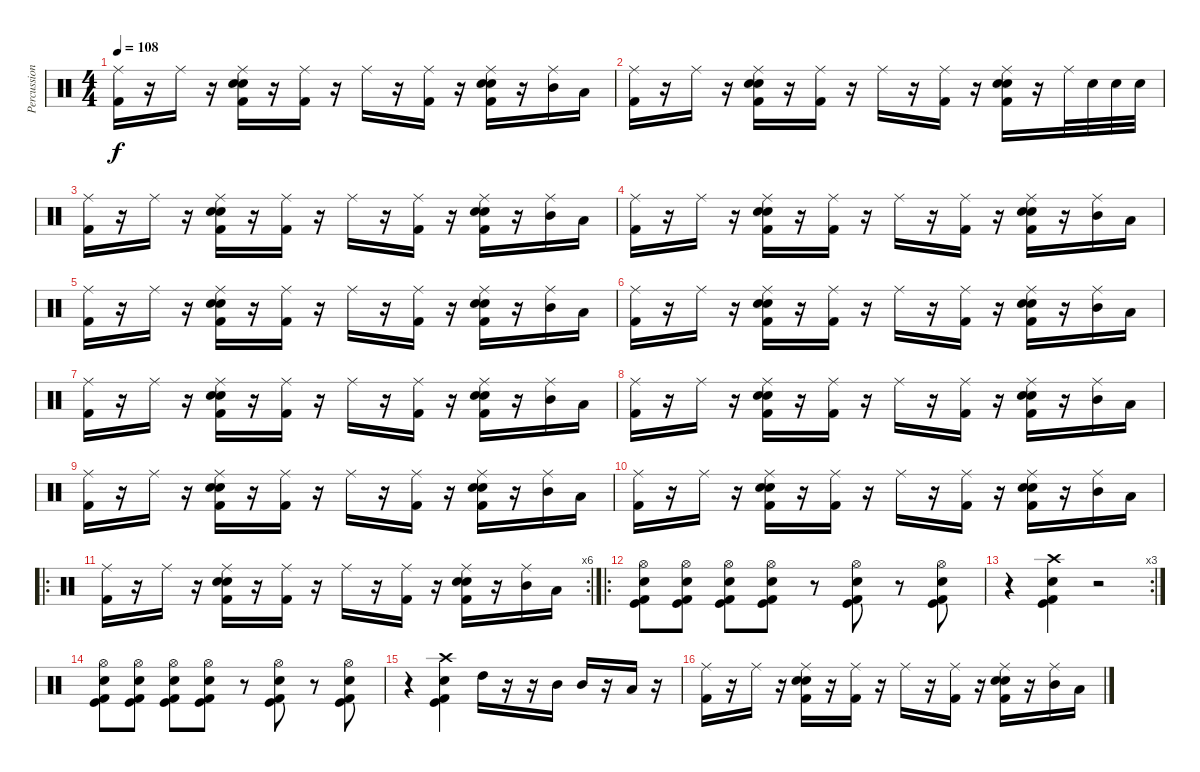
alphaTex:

\track ("Percussions" "Percussion") {instrument percussion}
\staff {score}
\articulation defaults
\ts (4 4)
\tempo 108
\clef neutral
\ks c
("Ride (middle)" "Kick (hit) 2").16{dy f} r.16 "Ride (middle)".16 r.16 ("Ride (middle)" "Kick (hit) 2" "Snare (hit) 2" "Electric Snare (hit)").16 r.16 ("Ride (middle)" "Kick (hit) 2").16 r.16 "Ride (middle)".16 r.16 ("Ride (middle)" "Kick (hit) 2").16 r.16 ("Ride (middle)" "Kick (hit) 2" "Snare (hit) 2" "Electric Snare (hit)").16 r.16 ("Ride (middle)" "Mid Tom (hit)").16 "Low Tom (hit)".16 |
("Ride (middle)" "Kick (hit) 2").16 r.16 "Ride (middle)".16 r.16 ("Ride (middle)" "Kick (hit) 2" "Snare (hit) 2" "Electric Snare (hit)").16 r.16 ("Ride (middle)" "Kick (hit) 2").16 r.16 "Ride (middle)".16 r.16 ("Ride (middle)" "Kick (hit) 2").16 r.16 ("Ride (middle)" "Kick (hit) 2" "Snare (hit) 2" "Electric Snare (hit)").16 r.16 "Ride (middle)".32 "Snare (hit) 2".32 "Snare (hit) 2".32 "Snare (hit) 2".32 |
("Ride (middle)" "Kick (hit) 2").16 r.16 "Ride (middle)".16 r.16 ("Ride (middle)" "Kick (hit) 2" "Snare (hit) 2" "Electric Snare (hit)").16 r.16 ("Ride (middle)" "Kick (hit) 2").16 r.16 "Ride (middle)".16 r.16 ("Ride (middle)" "Kick (hit) 2").16 r.16 ("Ride (middle)" "Kick (hit) 2" "Snare (hit) 2" "Electric Snare (hit)").16 r.16 ("Ride (middle)" "Mid Tom (hit)").16 "Low Tom (hit)".16 |
("Ride (middle)" "Kick (hit) 2").16 r.16 "Ride (middle)".16 r.16 ("Ride (middle)" "Kick (hit) 2" "Snare (hit) 2" "Electric Snare (hit)").16 r.16 ("Ride (middle)" "Kick (hit) 2").16 r.16 "Ride (middle)".16 r.16 ("Ride (middle)" "Kick (hit) 2").16 r.16 ("Ride (middle)" "Kick (hit) 2" "Snare (hit) 2" "Electric Snare (hit)").16 r.16 ("Ride (middle)" "Mid Tom (hit)").16 "Low Tom (hit)".16 |
("Ride (middle)" "Kick (hit) 2").16 r.16 "Ride (middle)".16 r.16 ("Ride (middle)" "Kick (hit) 2" "Snare (hit) 2" "Electric Snare (hit)").16 r.16 ("Ride (middle)" "Kick (hit) 2").16 r.16 "Ride (middle)".16 r.16 ("Ride (middle)" "Kick (hit) 2").16 r.16 ("Ride (middle)" "Kick (hit) 2" "Snare (hit) 2" "Electric Snare (hit)").16 r.16 ("Ride (middle)" "Mid Tom (hit)").16 "Low Tom (hit)".16 |
("Ride (middle)" "Kick (hit) 2").16 r.16 "Ride (middle)".16 r.16 ("Ride (middle)" "Kick (hit) 2" "Snare (hit) 2" "Electric Snare (hit)").16 r.16 ("Ride (middle)" "Kick (hit) 2").16 r.16 "Ride (middle)".16 r.16 ("Ride (middle)" "Kick (hit) 2").16 r.16 ("Ride (middle)" "Kick (hit) 2" "Snare (hit) 2" "Electric Snare (hit)").16 r.16 ("Ride (middle)" "Mid Tom (hit)").16 "Low Tom (hit)".16 |
("Ride (middle)" "Kick (hit) 2").16 r.16 "Ride (middle)".16 r.16 ("Ride (middle)" "Kick (hit) 2" "Snare (hit) 2" "Electric Snare (hit)").16 r.16 ("Ride (middle)" "Kick (hit) 2").16 r.16 "Ride (middle)".16 r.16 ("Ride (middle)" "Kick (hit) 2").16 r.16 ("Ride (middle)" "Kick (hit) 2" "Snare (hit) 2" "Electric Snare (hit)").16 r.16 ("Ride (middle)" "Mid Tom (hit)").16 "Low Tom (hit)".16 |
("Ride (middle)" "Kick (hit) 2").16 r.16 "Ride (middle)".16 r.16 ("Ride (middle)" "Kick (hit) 2" "Snare (hit) 2" "Electric Snare (hit)").16 r.16 ("Ride (middle)" "Kick (hit) 2").16 r.16 "Ride (middle)".16 r.16 ("Ride (middle)" "Kick (hit) 2").16 r.16 ("Ride (middle)" "Kick (hit) 2" "Snare (hit) 2" "Electric Snare (hit)").16 r.16 ("Ride (middle)" "Mid Tom (hit)").16 "Low Tom (hit)".16 |
("Ride (middle)" "Kick (hit) 2").16 r.16 "Ride (middle)".16 r.16 ("Ride (middle)" "Kick (hit) 2" "Snare (hit) 2" "Electric Snare (hit)").16 r.16 ("Ride (middle)" "Kick (hit) 2").16 r.16 "Ride (middle)".16 r.16 ("Ride (middle)" "Kick (hit) 2").16 r.16 ("Ride (middle)" "Kick (hit) 2" "Snare (hit) 2" "Electric Snare (hit)").16 r.16 ("Ride (middle)" "Mid Tom (hit)").16 "Low Tom (hit)".16 |
("Ride (middle)" "Kick (hit) 2").16 r.16 "Ride (middle)".16 r.16 ("Ride (middle)" "Kick (hit) 2" "Snare (hit) 2" "Electric Snare (hit)").16 r.16 ("Ride (middle)" "Kick (hit) 2").16 r.16 "Ride (middle)".16 r.16 ("Ride (middle)" "Kick (hit) 2").16 r.16 ("Ride (middle)" "Kick (hit) 2" "Snare (hit) 2" "Electric Snare (hit)").16 r.16 ("Ride (middle)" "Mid Tom (hit)").16 "Low Tom (hit)".16 |
\ro
\rc 6
("Ride (middle)" "Kick (hit) 2").16 r.16 "Ride (middle)".16 r.16 ("Ride (middle)" "Kick (hit) 2" "Snare (hit) 2" "Electric Snare (hit)").16 r.16 ("Ride (middle)" "Kick (hit) 2").16 r.16 "Ride (middle)".16 r.16 ("Ride (middle)" "Kick (hit) 2").16 r.16 ("Ride (middle)" "Kick (hit) 2" "Snare (hit) 2" "Electric Snare (hit)").16 r.16 ("Ride (middle)" "Mid Tom (hit)").16 "Low Tom (hit)".16 |
\ro
("Kick (hit)" "Kick (hit) 2" "Snare (hit) 2" "Hi-Hat (open)").8 ("Kick (hit)" "Kick (hit) 2" "Snare (hit) 2" "Hi-Hat (open)").8 ("Kick (hit)" "Kick (hit) 2" "Snare (hit) 2" "Hi-Hat (open)").8 ("Kick (hit)" "Kick (hit) 2" "Snare (hit) 2" "Hi-Hat (open)").8 r.8 ("Kick (hit)" "Kick (hit) 2" "Snare (hit) 2" "Hi-Hat (open)").8 r.8 ("Kick (hit)" "Kick (hit) 2" "Snare (hit) 2" "Hi-Hat (open)").8 |
\rc 3
r.4 ("Kick (hit)" "Kick (hit) 2" "Snare (hit) 2" "Crash high (hit)").4 r.2 |
("Kick (hit)" "Kick (hit) 2" "Snare (hit) 2" "Hi-Hat (open)").8 ("Kick (hit)" "Kick (hit) 2" "Snare (hit) 2" "Hi-Hat (open)").8 ("Kick (hit)" "Kick (hit) 2" "Snare (hit) 2" "Hi-Hat (open)").8 ("Kick (hit)" "Kick (hit) 2" "Snare (hit) 2" "Hi-Hat (open)").8 r.8 ("Kick (hit)" "Kick (hit) 2" "Snare (hit) 2" "Hi-Hat (open)").8 r.8 ("Kick (hit)" "Kick (hit) 2" "Snare (hit) 2" "Hi-Hat (open)").8 |
r.4 ("Kick (hit)" "Kick (hit) 2" "Snare (hit) 2" "Crash high (hit)").4 "High Tom (hit)".16 r.16 r.16 "Mid Tom (hit)".16 "Mid Tom (hit)".16 r.16 "Low Tom (hit)".16 r.16 |
("Ride (middle)" "Kick (hit) 2").16 r.16 "Ride (middle)".16 r.16 ("Ride (middle)" "Kick (hit) 2" "Snare (hit) 2" "Electric Snare (hit)").16 r.16 ("Ride (middle)" "Kick (hit) 2").16 r.16 "Ride (middle)".16 r.16 ("Ride (middle)" "Kick (hit) 2").16 r.16 ("Ride (middle)" "Kick (hit) 2" "Snare (hit) 2" "Electric Snare (hit)").16 r.16 ("Ride (middle)" "Mid Tom (hit)").16 "Low Tom (hit)".16
